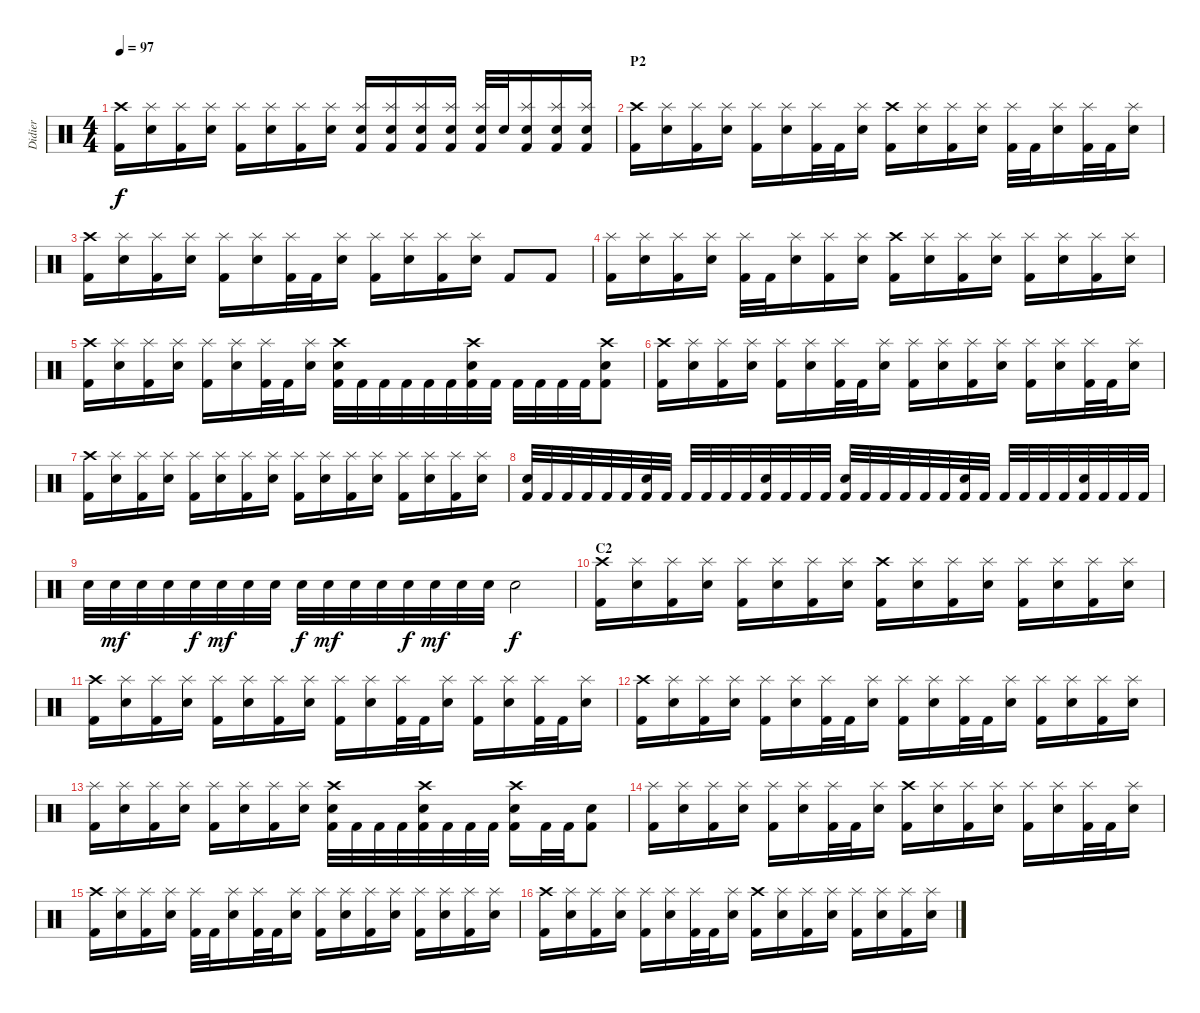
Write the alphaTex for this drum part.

\track ("Didier" "Didier") {instrument percussion}
\staff {score}
\articulation defaults
\ts (4 4)
\tempo 97
\clef neutral
\ks c
("Crash high (hit)" "Kick (hit) 2").16{dy f} ("Splash (hit)" "Snare (hit) 2").16 ("Splash (hit)" "Kick (hit) 2").16 ("Splash (hit)" "Snare (hit) 2").16 ("Splash (hit)" "Kick (hit) 2").16 ("Splash (hit)" "Snare (hit) 2").16 ("Splash (hit)" "Kick (hit) 2").16 ("Splash (hit)" "Snare (hit) 2").16 ("Splash (hit)" "Snare (hit) 2" "Kick (hit) 2").16 ("Splash (hit)" "Snare (hit) 2" "Kick (hit) 2").16 ("Splash (hit)" "Snare (hit) 2" "Kick (hit) 2").16 ("Splash (hit)" "Snare (hit) 2" "Kick (hit) 2").16 ("Splash (hit)" "Snare (hit) 2" "Kick (hit) 2").32 "Snare (hit) 2".32 ("Splash (hit)" "Snare (hit) 2" "Kick (hit) 2").16 ("Splash (hit)" "Snare (hit) 2" "Kick (hit) 2").16 ("Splash (hit)" "Snare (hit) 2" "Kick (hit) 2").16 |
\section ("" "P2")
("Crash high (hit)" "Kick (hit) 2").16 ("Splash (hit)" "Snare (hit) 2").16 ("Splash (hit)" "Kick (hit) 2").16 ("Splash (hit)" "Snare (hit) 2").16 ("Splash (hit)" "Kick (hit) 2").16 ("Splash (hit)" "Snare (hit) 2").16 ("Splash (hit)" "Kick (hit) 2").32 "Kick (hit) 2".32 ("Splash (hit)" "Snare (hit) 2").16 ("Crash high (hit)" "Kick (hit) 2").16 ("Splash (hit)" "Snare (hit) 2").16 ("Splash (hit)" "Kick (hit) 2").16 ("Splash (hit)" "Snare (hit) 2").16 ("Splash (hit)" "Kick (hit) 2").32 "Kick (hit) 2".32 ("Splash (hit)" "Snare (hit) 2").16 ("Splash (hit)" "Kick (hit) 2").32 "Kick (hit) 2".32 ("Splash (hit)" "Snare (hit) 2").16 |
("Crash high (hit)" "Kick (hit) 2").16 ("Splash (hit)" "Snare (hit) 2").16 ("Splash (hit)" "Kick (hit) 2").16 ("Splash (hit)" "Snare (hit) 2").16 ("Splash (hit)" "Kick (hit) 2").16 ("Splash (hit)" "Snare (hit) 2").16 ("Splash (hit)" "Kick (hit) 2").32 "Kick (hit) 2".32 ("Splash (hit)" "Snare (hit) 2").16 ("Splash (hit)" "Kick (hit) 2").16 ("Splash (hit)" "Snare (hit) 2").16 ("Splash (hit)" "Kick (hit) 2").16 ("Splash (hit)" "Snare (hit) 2").16 "Kick (hit) 2".8 "Kick (hit) 2".8 |
("Splash (hit)" "Kick (hit) 2").16 ("Splash (hit)" "Snare (hit) 2").16 ("Splash (hit)" "Kick (hit) 2").16 ("Splash (hit)" "Snare (hit) 2").16 ("Splash (hit)" "Kick (hit) 2").32 "Kick (hit) 2".32 ("Splash (hit)" "Snare (hit) 2").16 ("Splash (hit)" "Kick (hit) 2").16 ("Splash (hit)" "Snare (hit) 2").16 ("Crash high (hit)" "Kick (hit) 2").16 ("Splash (hit)" "Snare (hit) 2").16 ("Splash (hit)" "Kick (hit) 2").16 ("Splash (hit)" "Snare (hit) 2").16 ("Splash (hit)" "Kick (hit) 2").16 ("Splash (hit)" "Snare (hit) 2").16 ("Splash (hit)" "Kick (hit) 2").16 ("Splash (hit)" "Snare (hit) 2").16 |
("Crash high (hit)" "Kick (hit) 2").16 ("Splash (hit)" "Snare (hit) 2").16 ("Splash (hit)" "Kick (hit) 2").16 ("Splash (hit)" "Snare (hit) 2").16 ("Splash (hit)" "Kick (hit) 2").16 ("Splash (hit)" "Snare (hit) 2").16 ("Splash (hit)" "Kick (hit) 2").32 "Kick (hit) 2".32 ("Splash (hit)" "Snare (hit) 2").16 ("Crash high (hit)" "Snare (hit) 2" "Kick (hit) 2").32 "Kick (hit) 2".32 "Kick (hit) 2".32 "Kick (hit) 2".32 "Kick (hit) 2".32 "Kick (hit) 2".32 ("Crash high (hit)" "Snare (hit) 2" "Kick (hit) 2").32 "Kick (hit) 2".32 "Kick (hit) 2".32 "Kick (hit) 2".32 "Kick (hit) 2".32 "Kick (hit) 2".32 ("Crash high (hit)" "Snare (hit) 2" "Kick (hit) 2").8 |
("Crash high (hit)" "Kick (hit) 2").16 ("Splash (hit)" "Snare (hit) 2").16 ("Splash (hit)" "Kick (hit) 2").16 ("Splash (hit)" "Snare (hit) 2").16 ("Splash (hit)" "Kick (hit) 2").16 ("Splash (hit)" "Snare (hit) 2").16 ("Splash (hit)" "Kick (hit) 2").32 "Kick (hit) 2".32 ("Splash (hit)" "Snare (hit) 2").16 ("Splash (hit)" "Kick (hit) 2").16 ("Splash (hit)" "Snare (hit) 2").16 ("Splash (hit)" "Kick (hit) 2").16 ("Splash (hit)" "Snare (hit) 2").16 ("Splash (hit)" "Kick (hit) 2").16 ("Splash (hit)" "Snare (hit) 2").16 ("Splash (hit)" "Kick (hit) 2").32 "Kick (hit) 2".32 ("Splash (hit)" "Snare (hit) 2").16 |
("Crash high (hit)" "Kick (hit) 2").16 ("Splash (hit)" "Snare (hit) 2").16 ("Splash (hit)" "Kick (hit) 2").16 ("Splash (hit)" "Snare (hit) 2").16 ("Splash (hit)" "Kick (hit) 2").16 ("Splash (hit)" "Snare (hit) 2").16 ("Splash (hit)" "Kick (hit) 2").16 ("Splash (hit)" "Snare (hit) 2").16 ("Splash (hit)" "Kick (hit) 2").16 ("Splash (hit)" "Snare (hit) 2").16 ("Splash (hit)" "Kick (hit) 2").16 ("Splash (hit)" "Snare (hit) 2").16 ("Splash (hit)" "Kick (hit) 2").16 ("Splash (hit)" "Snare (hit) 2").16 ("Splash (hit)" "Kick (hit) 2").16 ("Splash (hit)" "Snare (hit) 2").16 |
("Snare (hit) 2" "Kick (hit) 2").32 "Kick (hit) 2".32 "Kick (hit) 2".32 "Kick (hit) 2".32 "Kick (hit) 2".32 "Kick (hit) 2".32 ("Snare (hit) 2" "Kick (hit) 2").32 "Kick (hit) 2".32 "Kick (hit) 2".32 "Kick (hit) 2".32 "Kick (hit) 2".32 "Kick (hit) 2".32 ("Snare (hit) 2" "Kick (hit) 2").32 "Kick (hit) 2".32 "Kick (hit) 2".32 "Kick (hit) 2".32 ("Snare (hit) 2" "Kick (hit) 2").32 "Kick (hit) 2".32 "Kick (hit) 2".32 "Kick (hit) 2".32 "Kick (hit) 2".32 "Kick (hit) 2".32 ("Snare (hit) 2" "Kick (hit) 2").32 "Kick (hit) 2".32 "Kick (hit) 2".32 "Kick (hit) 2".32 "Kick (hit) 2".32 "Kick (hit) 2".32 ("Snare (hit) 2" "Kick (hit) 2").32 "Kick (hit) 2".32 "Kick (hit) 2".32 "Kick (hit) 2".32 |
"Snare (hit) 2".32 "Snare (hit) 2".32{dy mf} "Snare (hit) 2".32 "Snare (hit) 2".32 "Snare (hit) 2".32{dy f} "Snare (hit) 2".32{dy mf} "Snare (hit) 2".32 "Snare (hit) 2".32 "Snare (hit) 2".32{dy f} "Snare (hit) 2".32{dy mf} "Snare (hit) 2".32 "Snare (hit) 2".32 "Snare (hit) 2".32{dy f} "Snare (hit) 2".32{dy mf} "Snare (hit) 2".32 "Snare (hit) 2".32 "Snare (hit) 2".2{dy f} |
\section ("" "C2")
("Crash high (hit)" "Kick (hit) 2").16 ("Splash (hit)" "Snare (hit) 2").16 ("Splash (hit)" "Kick (hit) 2").16 ("Splash (hit)" "Snare (hit) 2").16 ("Splash (hit)" "Kick (hit) 2").16 ("Splash (hit)" "Snare (hit) 2").16 ("Splash (hit)" "Kick (hit) 2").16 ("Splash (hit)" "Snare (hit) 2").16 ("Crash high (hit)" "Kick (hit) 2").16 ("Splash (hit)" "Snare (hit) 2").16 ("Splash (hit)" "Kick (hit) 2").16 ("Splash (hit)" "Snare (hit) 2").16 ("Splash (hit)" "Kick (hit) 2").16 ("Splash (hit)" "Snare (hit) 2").16 ("Splash (hit)" "Kick (hit) 2").16 ("Splash (hit)" "Snare (hit) 2").16 |
("Crash high (hit)" "Kick (hit) 2").16 ("Splash (hit)" "Snare (hit) 2").16 ("Splash (hit)" "Kick (hit) 2").16 ("Splash (hit)" "Snare (hit) 2").16 ("Splash (hit)" "Kick (hit) 2").16 ("Splash (hit)" "Snare (hit) 2").16 ("Splash (hit)" "Kick (hit) 2").16 ("Splash (hit)" "Snare (hit) 2").16 ("Splash (hit)" "Kick (hit) 2").16 ("Splash (hit)" "Snare (hit) 2").16 ("Splash (hit)" "Kick (hit) 2").32 "Kick (hit) 2".32 ("Splash (hit)" "Snare (hit) 2").16 ("Splash (hit)" "Kick (hit) 2").16 ("Splash (hit)" "Snare (hit) 2").16 ("Splash (hit)" "Kick (hit) 2").32 "Kick (hit) 2".32 ("Splash (hit)" "Snare (hit) 2").16 |
("Crash high (hit)" "Kick (hit) 2").16 ("Splash (hit)" "Snare (hit) 2").16 ("Splash (hit)" "Kick (hit) 2").16 ("Splash (hit)" "Snare (hit) 2").16 ("Splash (hit)" "Kick (hit) 2").16 ("Splash (hit)" "Snare (hit) 2").16 ("Splash (hit)" "Kick (hit) 2").32 "Kick (hit) 2".32 ("Splash (hit)" "Snare (hit) 2").16 ("Splash (hit)" "Kick (hit) 2").16 ("Splash (hit)" "Snare (hit) 2").16 ("Splash (hit)" "Kick (hit) 2").32 "Kick (hit) 2".32 ("Splash (hit)" "Snare (hit) 2").16 ("Splash (hit)" "Kick (hit) 2").16 ("Splash (hit)" "Snare (hit) 2").16 ("Splash (hit)" "Kick (hit) 2").16 ("Splash (hit)" "Snare (hit) 2").16 |
("Splash (hit)" "Kick (hit) 2").16 ("Splash (hit)" "Snare (hit) 2").16 ("Splash (hit)" "Kick (hit) 2").16 ("Splash (hit)" "Snare (hit) 2").16 ("Splash (hit)" "Kick (hit) 2").16 ("Splash (hit)" "Snare (hit) 2").16 ("Splash (hit)" "Kick (hit) 2").16 ("Splash (hit)" "Snare (hit) 2").16 ("Crash high (hit)" "Snare (hit) 2" "Kick (hit) 2").32 "Kick (hit) 2".32 "Kick (hit) 2".32 "Kick (hit) 2".32 ("Crash high (hit)" "Snare (hit) 2" "Kick (hit) 2").32 "Kick (hit) 2".32 "Kick (hit) 2".32 "Kick (hit) 2".32 ("Crash high (hit)" "Snare (hit) 2" "Kick (hit) 2").16 "Kick (hit) 2".32 "Kick (hit) 2".32 ("Snare (hit) 2" "Kick (hit) 2").8 |
("Splash (hit)" "Kick (hit) 2").16 ("Splash (hit)" "Snare (hit) 2").16 ("Splash (hit)" "Kick (hit) 2").16 ("Splash (hit)" "Snare (hit) 2").16 ("Splash (hit)" "Kick (hit) 2").16 ("Splash (hit)" "Snare (hit) 2").16 ("Splash (hit)" "Kick (hit) 2").32 "Kick (hit) 2".32 ("Splash (hit)" "Snare (hit) 2").16 ("Crash high (hit)" "Kick (hit) 2").16 ("Splash (hit)" "Snare (hit) 2").16 ("Splash (hit)" "Kick (hit) 2").16 ("Splash (hit)" "Snare (hit) 2").16 ("Splash (hit)" "Kick (hit) 2").16 ("Splash (hit)" "Snare (hit) 2").16 ("Splash (hit)" "Kick (hit) 2").32 "Kick (hit) 2".32 ("Splash (hit)" "Snare (hit) 2").16 |
("Crash high (hit)" "Kick (hit) 2").16 ("Splash (hit)" "Snare (hit) 2").16 ("Splash (hit)" "Kick (hit) 2").16 ("Splash (hit)" "Snare (hit) 2").16 ("Splash (hit)" "Kick (hit) 2").32 "Kick (hit) 2".32 ("Splash (hit)" "Snare (hit) 2").16 ("Splash (hit)" "Kick (hit) 2").32 "Kick (hit) 2".32 ("Splash (hit)" "Snare (hit) 2").16 ("Splash (hit)" "Kick (hit) 2").16 ("Splash (hit)" "Snare (hit) 2").16 ("Splash (hit)" "Kick (hit) 2").16 ("Splash (hit)" "Snare (hit) 2").16 ("Splash (hit)" "Kick (hit) 2").16 ("Splash (hit)" "Snare (hit) 2").16 ("Splash (hit)" "Kick (hit) 2").16 ("Splash (hit)" "Snare (hit) 2").16 |
("Crash high (hit)" "Kick (hit) 2").16 ("Splash (hit)" "Snare (hit) 2").16 ("Splash (hit)" "Kick (hit) 2").16 ("Splash (hit)" "Snare (hit) 2").16 ("Splash (hit)" "Kick (hit) 2").16 ("Splash (hit)" "Snare (hit) 2").16 ("Splash (hit)" "Kick (hit) 2").32 "Kick (hit) 2".32 ("Splash (hit)" "Snare (hit) 2").16 ("Crash high (hit)" "Kick (hit) 2").16 ("Splash (hit)" "Snare (hit) 2").16 ("Splash (hit)" "Kick (hit) 2").16 ("Splash (hit)" "Snare (hit) 2").16 ("Splash (hit)" "Kick (hit) 2").16 ("Splash (hit)" "Snare (hit) 2").16 ("Splash (hit)" "Kick (hit) 2").16 ("Splash (hit)" "Snare (hit) 2").16
